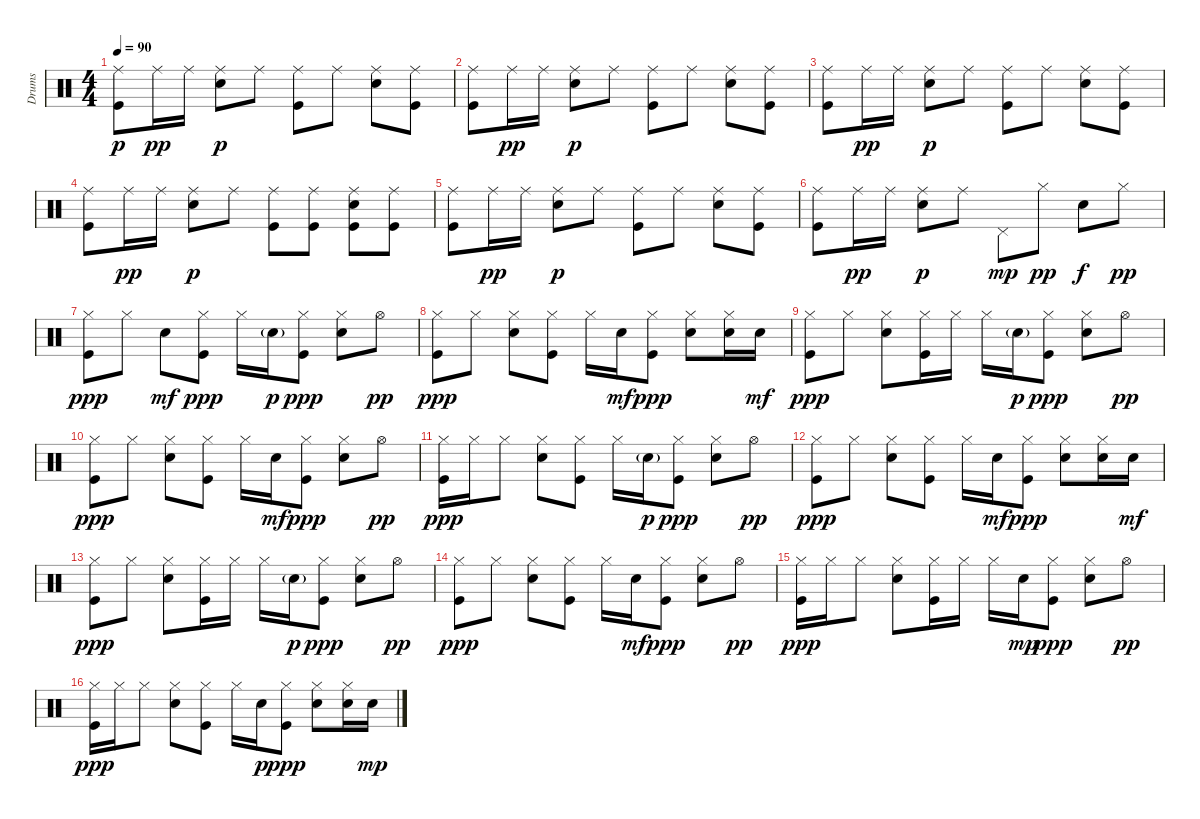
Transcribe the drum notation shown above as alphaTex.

\track ("Drums" "Drums") {instrument percussion}
\staff {score}
\articulation defaults
\ts (4 4)
\tempo 90
\clef neutral
\ks c
("Kick (hit)" "Ride (middle)").8{dy p} "Ride (middle)".16{dy pp} "Ride (middle)".16 ("Snare (hit) 2" "Ride (middle)").8{dy p} "Ride (middle)".8 ("Kick (hit)" "Ride (middle)").8 "Ride (middle)".8 ("Snare (hit) 2" "Ride (middle)").8 ("Kick (hit)" "Ride (middle)").8 |
("Kick (hit)" "Ride (middle)").8 "Ride (middle)".16{dy pp} "Ride (middle)".16 ("Snare (hit) 2" "Ride (middle)").8{dy p} "Ride (middle)".8 ("Kick (hit)" "Ride (middle)").8 "Ride (middle)".8 ("Snare (hit) 2" "Ride (middle)").8 ("Kick (hit)" "Ride (middle)").8 |
("Kick (hit)" "Ride (middle)").8 "Ride (middle)".16{dy pp} "Ride (middle)".16 ("Snare (hit) 2" "Ride (middle)").8{dy p} "Ride (middle)".8 ("Kick (hit)" "Ride (middle)").8 "Ride (middle)".8 ("Snare (hit) 2" "Ride (middle)").8 ("Kick (hit)" "Ride (middle)").8 |
("Kick (hit)" "Ride (middle)").8 "Ride (middle)".16{dy pp} "Ride (middle)".16 ("Snare (hit) 2" "Ride (middle)").8{dy p} "Ride (middle)".8 ("Kick (hit)" "Ride (middle)").8 ("Kick (hit)" "Ride (middle)").8 ("Kick (hit)" "Snare (hit) 2" "Ride (middle)").8 ("Kick (hit)" "Ride (middle)").8 |
("Kick (hit)" "Ride (middle)").8 "Ride (middle)".16{dy pp} "Ride (middle)".16 ("Snare (hit) 2" "Ride (middle)").8{dy p} "Ride (middle)".8 ("Kick (hit)" "Ride (middle)").8 "Ride (middle)".8 ("Snare (hit) 2" "Ride (middle)").8 ("Kick (hit)" "Ride (middle)").8 |
("Kick (hit)" "Ride (middle)").8 "Ride (middle)".16{dy pp} "Ride (middle)".16 ("Snare (hit) 2" "Ride (middle)").8{dy p} "Ride (middle)".8 "Pedal Hi-Hat (hit)".8{dy mp} "Hi-Hat (closed)".8{dy pp} "Snare (hit) 2".8{dy f} "Hi-Hat (closed)".8{dy pp} |
("Kick (hit)" "Hi-Hat (closed)").8{dy ppp} "Hi-Hat (closed)".8 "Snare (hit) 2".8{dy mf} ("Kick (hit)" "Hi-Hat (closed)").8{dy ppp} "Hi-Hat (closed)".16 "Snare (hit) 2"{g}.16{dy p} ("Kick (hit)" "Hi-Hat (closed)").8{dy ppp} ("Snare (hit) 2" "Hi-Hat (closed)").8 "Hi-Hat (open)".8{dy pp} |
("Kick (hit)" "Hi-Hat (closed)").8{dy ppp} "Hi-Hat (closed)".8 ("Snare (hit) 2" "Hi-Hat (closed)").8 ("Kick (hit)" "Hi-Hat (closed)").8 "Hi-Hat (closed)".16 "Snare (hit) 2".16{dy mf} ("Kick (hit)" "Hi-Hat (closed)").8{dy ppp} ("Snare (hit) 2" "Hi-Hat (closed)").8 ("Snare (hit) 2" "Hi-Hat (closed)").16 "Snare (hit) 2".16{dy mf} |
("Kick (hit)" "Hi-Hat (closed)").8{dy ppp} "Hi-Hat (closed)".8 ("Snare (hit) 2" "Hi-Hat (closed)").8 ("Kick (hit)" "Hi-Hat (closed)").16 "Hi-Hat (closed)".16 "Hi-Hat (closed)".16 "Snare (hit) 2"{g}.16{dy p} ("Kick (hit)" "Hi-Hat (closed)").8{dy ppp} ("Snare (hit) 2" "Hi-Hat (closed)").8 "Hi-Hat (open)".8{dy pp} |
("Kick (hit)" "Hi-Hat (closed)").8{dy ppp} "Hi-Hat (closed)".8 ("Snare (hit) 2" "Hi-Hat (closed)").8 ("Kick (hit)" "Hi-Hat (closed)").8 "Hi-Hat (closed)".16 "Snare (hit) 2".16{dy mf} ("Kick (hit)" "Hi-Hat (closed)").8{dy ppp} ("Snare (hit) 2" "Hi-Hat (closed)").8 "Hi-Hat (open)".8{dy pp} |
("Kick (hit)" "Hi-Hat (closed)").16{dy ppp} "Hi-Hat (closed)".16 "Hi-Hat (closed)".8 ("Snare (hit) 2" "Hi-Hat (closed)").8 ("Kick (hit)" "Hi-Hat (closed)").8 "Hi-Hat (closed)".16 "Snare (hit) 2"{g}.16{dy p} ("Kick (hit)" "Hi-Hat (closed)").8{dy ppp} ("Snare (hit) 2" "Hi-Hat (closed)").8 "Hi-Hat (open)".8{dy pp} |
("Kick (hit)" "Hi-Hat (closed)").8{dy ppp} "Hi-Hat (closed)".8 ("Snare (hit) 2" "Hi-Hat (closed)").8 ("Kick (hit)" "Hi-Hat (closed)").8 "Hi-Hat (closed)".16 "Snare (hit) 2".16{dy mf} ("Kick (hit)" "Hi-Hat (closed)").8{dy ppp} ("Snare (hit) 2" "Hi-Hat (closed)").8 ("Snare (hit) 2" "Hi-Hat (closed)").16 "Snare (hit) 2".16{dy mf} |
("Kick (hit)" "Hi-Hat (closed)").8{dy ppp} "Hi-Hat (closed)".8 ("Snare (hit) 2" "Hi-Hat (closed)").8 ("Kick (hit)" "Hi-Hat (closed)").16 "Hi-Hat (closed)".16 "Hi-Hat (closed)".16 "Snare (hit) 2"{g}.16{dy p} ("Kick (hit)" "Hi-Hat (closed)").8{dy ppp} ("Snare (hit) 2" "Hi-Hat (closed)").8 "Hi-Hat (open)".8{dy pp} |
("Kick (hit)" "Hi-Hat (closed)").8{dy ppp} "Hi-Hat (closed)".8 ("Snare (hit) 2" "Hi-Hat (closed)").8 ("Kick (hit)" "Hi-Hat (closed)").8 "Hi-Hat (closed)".16 "Snare (hit) 2".16{dy mf} ("Kick (hit)" "Hi-Hat (closed)").8{dy ppp} ("Snare (hit) 2" "Hi-Hat (closed)").8 "Hi-Hat (open)".8{dy pp} |
("Kick (hit)" "Hi-Hat (closed)").16{dy ppp} "Hi-Hat (closed)".16 "Hi-Hat (closed)".8 ("Snare (hit) 2" "Hi-Hat (closed)").8 ("Kick (hit)" "Hi-Hat (closed)").16 "Hi-Hat (closed)".16 "Hi-Hat (closed)".16 "Snare (hit) 2".16{dy mp} ("Kick (hit)" "Hi-Hat (closed)").8{dy ppp} ("Snare (hit) 2" "Hi-Hat (closed)").8 "Hi-Hat (open)".8{dy pp} |
("Kick (hit)" "Hi-Hat (closed)").16{dy ppp} "Hi-Hat (closed)".16 "Hi-Hat (closed)".8 ("Snare (hit) 2" "Hi-Hat (closed)").8 ("Kick (hit)" "Hi-Hat (closed)").8 "Hi-Hat (closed)".16 "Snare (hit) 2".16{dy p} ("Kick (hit)" "Hi-Hat (closed)").8{dy ppp} ("Snare (hit) 2" "Hi-Hat (closed)").8 ("Snare (hit) 2" "Hi-Hat (closed)").16 "Snare (hit) 2".16{dy mp}
